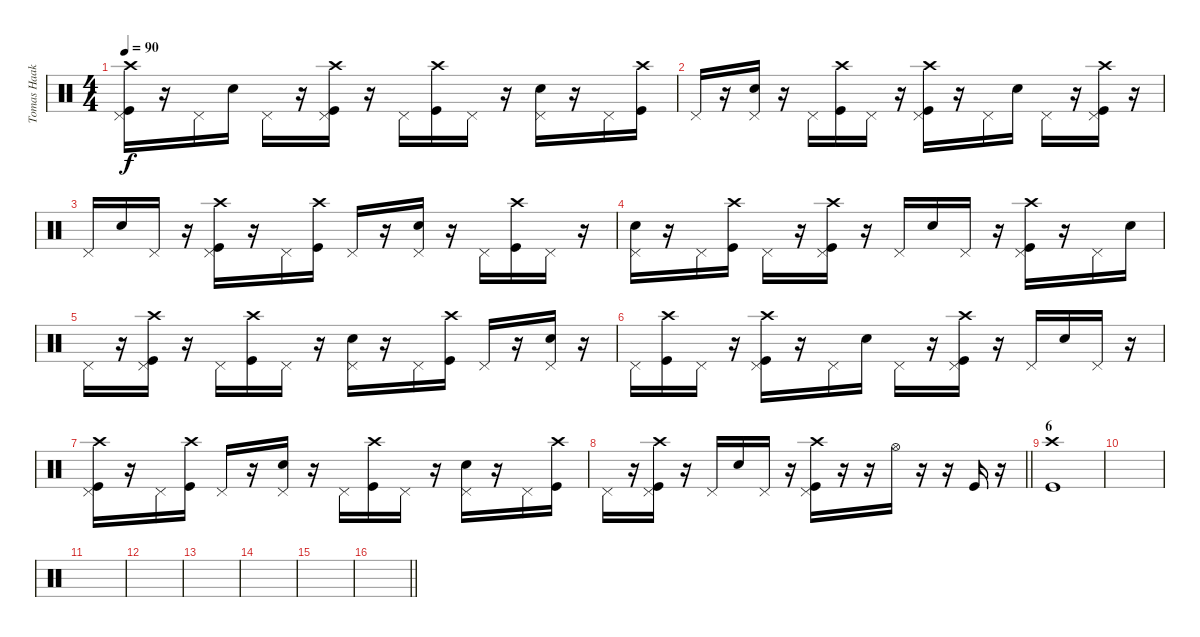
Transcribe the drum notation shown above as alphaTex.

\track ("Tomas Haake" "Tomas Haak") {instrument percussion}
\staff {score}
\articulation defaults
\ts (4 4)
\section ("" "")
\tempo 90
\clef neutral
\ks c
("Crash high (hit)" "Pedal Hi-Hat (hit)" "Kick (hit)").16{dy f} r.16 "Pedal Hi-Hat (hit)".16 "Electric Snare (hit)".16 "Pedal Hi-Hat (hit)".16 r.16 ("Crash high (hit)" "Pedal Hi-Hat (hit)" "Kick (hit)").16 r.16 "Pedal Hi-Hat (hit)".16 ("Crash high (hit)" "Kick (hit)").16 "Pedal Hi-Hat (hit)".16 r.16 ("Pedal Hi-Hat (hit)" "Electric Snare (hit)").16 r.16 "Pedal Hi-Hat (hit)".16 ("Crash high (hit)" "Kick (hit)").16 |
"Pedal Hi-Hat (hit)".16 r.16 ("Pedal Hi-Hat (hit)" "Electric Snare (hit)").16 r.16 "Pedal Hi-Hat (hit)".16 ("Crash high (hit)" "Kick (hit)").16 "Pedal Hi-Hat (hit)".16 r.16 ("Crash high (hit)" "Pedal Hi-Hat (hit)" "Kick (hit)").16 r.16 "Pedal Hi-Hat (hit)".16 "Electric Snare (hit)".16 "Pedal Hi-Hat (hit)".16 r.16 ("Crash high (hit)" "Pedal Hi-Hat (hit)" "Kick (hit)").16 r.16 |
"Pedal Hi-Hat (hit)".16 "Electric Snare (hit)".16 "Pedal Hi-Hat (hit)".16 r.16 ("Crash high (hit)" "Pedal Hi-Hat (hit)" "Kick (hit)").16 r.16 "Pedal Hi-Hat (hit)".16 ("Crash high (hit)" "Kick (hit)").16 "Pedal Hi-Hat (hit)".16 r.16 ("Pedal Hi-Hat (hit)" "Electric Snare (hit)").16 r.16 "Pedal Hi-Hat (hit)".16 ("Crash high (hit)" "Kick (hit)").16 "Pedal Hi-Hat (hit)".16 r.16 |
("Pedal Hi-Hat (hit)" "Electric Snare (hit)").16 r.16 "Pedal Hi-Hat (hit)".16 ("Crash high (hit)" "Kick (hit)").16 "Pedal Hi-Hat (hit)".16 r.16 ("Crash high (hit)" "Pedal Hi-Hat (hit)" "Kick (hit)").16 r.16 "Pedal Hi-Hat (hit)".16 "Electric Snare (hit)".16 "Pedal Hi-Hat (hit)".16 r.16 ("Crash high (hit)" "Pedal Hi-Hat (hit)" "Kick (hit)").16 r.16 "Pedal Hi-Hat (hit)".16 "Electric Snare (hit)".16 |
"Pedal Hi-Hat (hit)".16 r.16 ("Crash high (hit)" "Pedal Hi-Hat (hit)" "Kick (hit)").16 r.16 "Pedal Hi-Hat (hit)".16 ("Crash high (hit)" "Kick (hit)").16 "Pedal Hi-Hat (hit)".16 r.16 ("Pedal Hi-Hat (hit)" "Electric Snare (hit)").16 r.16 "Pedal Hi-Hat (hit)".16 ("Crash high (hit)" "Kick (hit)").16 "Pedal Hi-Hat (hit)".16 r.16 ("Pedal Hi-Hat (hit)" "Electric Snare (hit)").16 r.16 |
"Pedal Hi-Hat (hit)".16 ("Crash high (hit)" "Kick (hit)").16 "Pedal Hi-Hat (hit)".16 r.16 ("Crash high (hit)" "Pedal Hi-Hat (hit)" "Kick (hit)").16 r.16 "Pedal Hi-Hat (hit)".16 "Electric Snare (hit)".16 "Pedal Hi-Hat (hit)".16 r.16 ("Crash high (hit)" "Pedal Hi-Hat (hit)" "Kick (hit)").16 r.16 "Pedal Hi-Hat (hit)".16 "Electric Snare (hit)".16 "Pedal Hi-Hat (hit)".16 r.16 |
("Crash high (hit)" "Pedal Hi-Hat (hit)" "Kick (hit)").16 r.16 "Pedal Hi-Hat (hit)".16 ("Crash high (hit)" "Kick (hit)").16 "Pedal Hi-Hat (hit)".16 r.16 ("Pedal Hi-Hat (hit)" "Electric Snare (hit)").16 r.16 "Pedal Hi-Hat (hit)".16 ("Crash high (hit)" "Kick (hit)").16 "Pedal Hi-Hat (hit)".16 r.16 ("Pedal Hi-Hat (hit)" "Electric Snare (hit)").16 r.16 "Pedal Hi-Hat (hit)".16 ("Crash high (hit)" "Kick (hit)").16 |
\barLineRight lightlight "Pedal Hi-Hat (hit)".16
r.16 ("Crash high (hit)" "Pedal Hi-Hat (hit)" "Kick (hit)").16 r.16 "Pedal Hi-Hat (hit)".16 "Electric Snare (hit)".16 "Pedal Hi-Hat (hit)".16 r.16 ("Crash high (hit)" "Pedal Hi-Hat (hit)" "Kick (hit)").16 r.16 r.16 "Hi-Hat (open)".16 r.16 r.16 "Kick (hit)".16 r.16 |
\section ("" "6")
("Crash high (hit)" "Kick (hit)").1 |
|
|
|
|
|
|
\barLineRight lightlight
